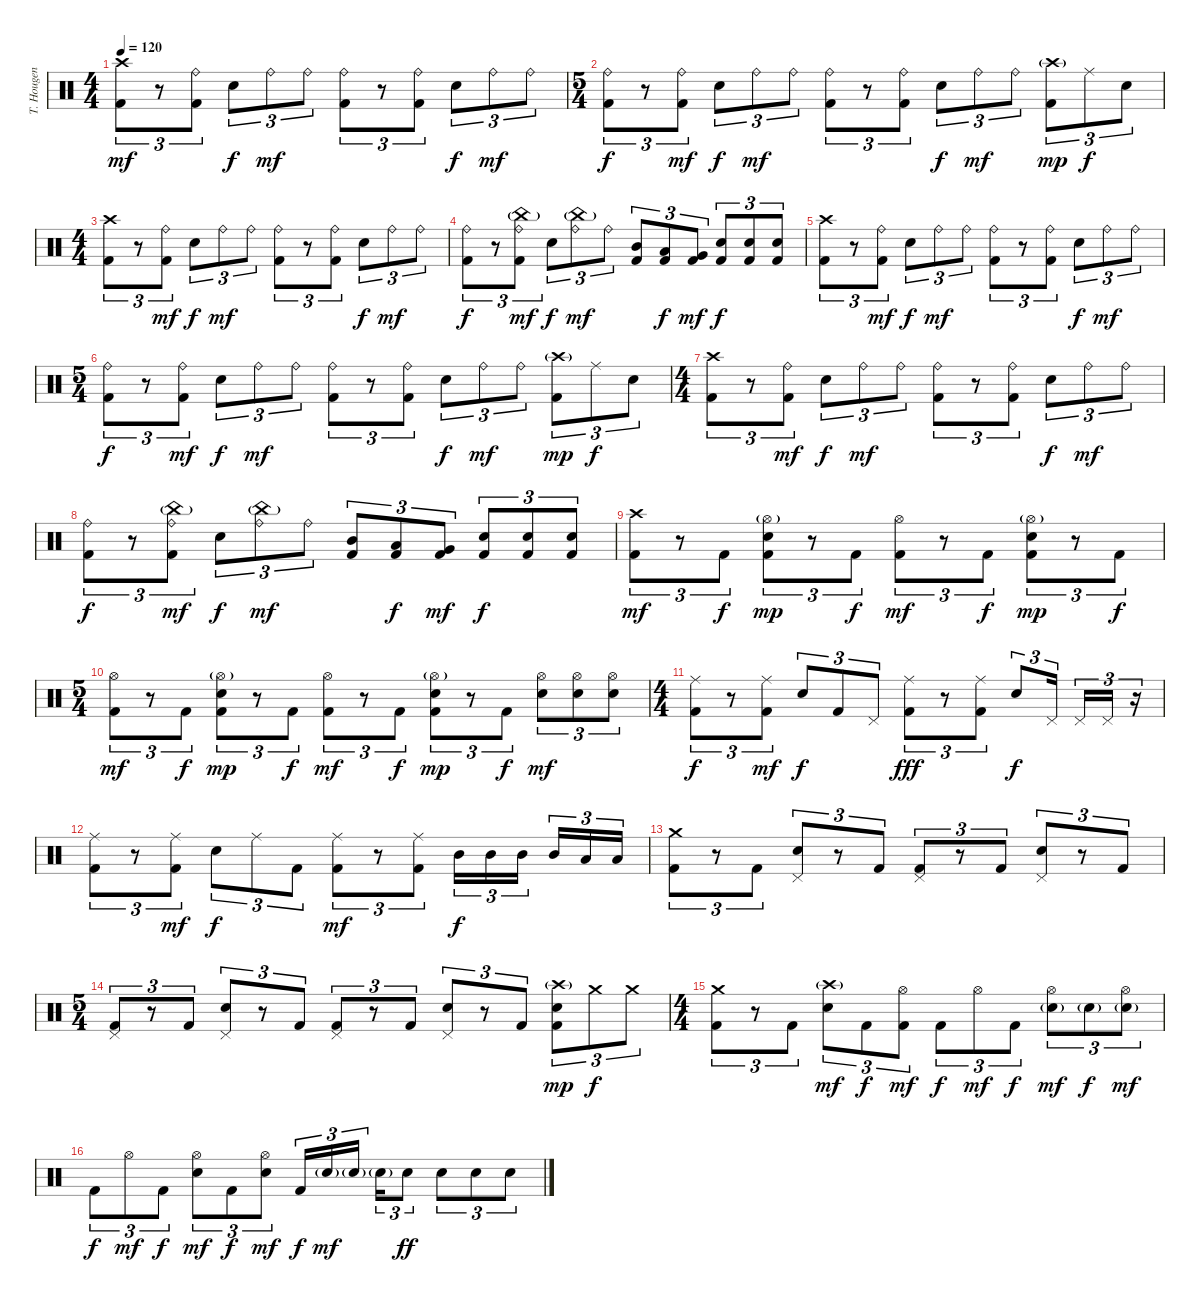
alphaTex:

\track ("T. Hougen - Drums" "T. Hougen ") {instrument percussion}
\staff {score}
\articulation defaults
\ts (4 4)
\tempo 120
\clef neutral
\ks c
("Crash high (hit)" "Kick (hit) 2").8{tu (3 2) dy mf volume 11} r.8{tu (3 2)} ("Ride (bell)" "Kick (hit) 2").8{tu (3 2)} "Electric Snare (hit)".8{tu (3 2) dy f} "Ride (bell)".8{tu (3 2) dy mf} "Ride (bell)".8{tu (3 2)} ("Ride (bell)" "Kick (hit) 2").8{tu (3 2)} r.8{tu (3 2)} ("Ride (bell)" "Kick (hit) 2").8{tu (3 2)} "Electric Snare (hit)".8{tu (3 2) dy f} "Ride (bell)".8{tu (3 2) dy mf} "Ride (bell)".8{tu (3 2)} |
\ts (5 4)
("Ride (bell)" "Kick (hit) 2").8{tu (3 2) dy f} r.8{tu (3 2)} ("Ride (bell)" "Kick (hit) 2").8{tu (3 2) dy mf} "Electric Snare (hit)".8{tu (3 2) dy f} "Ride (bell)".8{tu (3 2) dy mf} "Ride (bell)".8{tu (3 2)} ("Ride (bell)" "Kick (hit) 2").8{tu (3 2)} r.8{tu (3 2)} ("Ride (bell)" "Kick (hit) 2").8{tu (3 2)} "Electric Snare (hit)".8{tu (3 2) dy f} "Ride (bell)".8{tu (3 2) dy mf} "Ride (bell)".8{tu (3 2)} ("Crash high (hit)"{g} "Kick (hit) 2").8{tu (3 2) dy mp} "Ride (middle)".8{tu (3 2) dy f} "Electric Snare (hit)".8{tu (3 2)} |
\ts (4 4)
("Crash high (hit)" "Kick (hit) 2").8{tu (3 2)} r.8{tu (3 2)} ("Ride (bell)" "Kick (hit) 2").8{tu (3 2) dy mf} "Electric Snare (hit)".8{tu (3 2) dy f} "Ride (bell)".8{tu (3 2) dy mf} "Ride (bell)".8{tu (3 2)} ("Ride (bell)" "Kick (hit) 2").8{tu (3 2)} r.8{tu (3 2)} ("Ride (bell)" "Kick (hit) 2").8{tu (3 2)} "Electric Snare (hit)".8{tu (3 2) dy f} "Ride (bell)".8{tu (3 2) dy mf} "Ride (bell)".8{tu (3 2)} |
("Ride (bell)" "Kick (hit) 2").8{tu (3 2) dy f} r.8{tu (3 2)} ("China (hit)"{g} "Ride (bell)" "Kick (hit) 2").8{tu (3 2) dy mf} "Electric Snare (hit)".8{tu (3 2) dy f} ("China (hit)"{g} "Ride (bell)").8{tu (3 2) dy mf} "Ride (bell)".8{tu (3 2)} ("Mid Tom (hit)" "Kick (hit) 2").8{tu (3 2)} ("Low Tom (hit)" "Kick (hit) 2").8{tu (3 2) dy f} ("Very Low Tom (hit)" "Kick (hit) 2").8{tu (3 2) dy mf} ("Electric Snare (hit)" "Kick (hit) 2").8{tu (3 2) dy f} ("Electric Snare (hit)" "Kick (hit) 2").8{tu (3 2)} ("Electric Snare (hit)" "Kick (hit) 2").8{tu (3 2)} |
("Crash high (hit)" "Kick (hit) 2").8{tu (3 2)} r.8{tu (3 2)} ("Ride (bell)" "Kick (hit) 2").8{tu (3 2) dy mf} "Electric Snare (hit)".8{tu (3 2) dy f} "Ride (bell)".8{tu (3 2) dy mf} "Ride (bell)".8{tu (3 2)} ("Ride (bell)" "Kick (hit) 2").8{tu (3 2)} r.8{tu (3 2)} ("Ride (bell)" "Kick (hit) 2").8{tu (3 2)} "Electric Snare (hit)".8{tu (3 2) dy f} "Ride (bell)".8{tu (3 2) dy mf} "Ride (bell)".8{tu (3 2)} |
\ts (5 4)
("Ride (bell)" "Kick (hit) 2").8{tu (3 2) dy f} r.8{tu (3 2)} ("Ride (bell)" "Kick (hit) 2").8{tu (3 2) dy mf} "Electric Snare (hit)".8{tu (3 2) dy f} "Ride (bell)".8{tu (3 2) dy mf} "Ride (bell)".8{tu (3 2)} ("Ride (bell)" "Kick (hit) 2").8{tu (3 2)} r.8{tu (3 2)} ("Ride (bell)" "Kick (hit) 2").8{tu (3 2)} "Electric Snare (hit)".8{tu (3 2) dy f} "Ride (bell)".8{tu (3 2) dy mf} "Ride (bell)".8{tu (3 2)} ("Crash high (hit)"{g} "Kick (hit) 2").8{tu (3 2) dy mp} "Ride (middle)".8{tu (3 2) dy f} "Electric Snare (hit)".8{tu (3 2)} |
\ts (4 4)
("Crash high (hit)" "Kick (hit) 2").8{tu (3 2)} r.8{tu (3 2)} ("Ride (bell)" "Kick (hit) 2").8{tu (3 2) dy mf} "Electric Snare (hit)".8{tu (3 2) dy f} "Ride (bell)".8{tu (3 2) dy mf} "Ride (bell)".8{tu (3 2)} ("Ride (bell)" "Kick (hit) 2").8{tu (3 2)} r.8{tu (3 2)} ("Ride (bell)" "Kick (hit) 2").8{tu (3 2)} "Electric Snare (hit)".8{tu (3 2) dy f} "Ride (bell)".8{tu (3 2) dy mf} "Ride (bell)".8{tu (3 2)} |
("Ride (bell)" "Kick (hit) 2").8{tu (3 2) dy f} r.8{tu (3 2)} ("China (hit)"{g} "Ride (bell)" "Kick (hit) 2").8{tu (3 2) dy mf} "Electric Snare (hit)".8{tu (3 2) dy f} ("China (hit)"{g} "Ride (bell)").8{tu (3 2) dy mf} "Ride (bell)".8{tu (3 2)} ("Mid Tom (hit)" "Kick (hit) 2").8{tu (3 2)} ("Low Tom (hit)" "Kick (hit) 2").8{tu (3 2) dy f} ("Very Low Tom (hit)" "Kick (hit) 2").8{tu (3 2) dy mf} ("Electric Snare (hit)" "Kick (hit) 2").8{tu (3 2) dy f} ("Electric Snare (hit)" "Kick (hit) 2").8{tu (3 2)} ("Electric Snare (hit)" "Kick (hit) 2").8{tu (3 2)} |
("Crash high (hit)" "Kick (hit) 2").8{tu (3 2) dy mf} r.8{tu (3 2)} "Kick (hit) 2".8{tu (3 2) dy f} ("Hi-Hat (open)"{g} "Electric Snare (hit)" "Kick (hit) 2").8{tu (3 2) dy mp} r.8{tu (3 2)} "Kick (hit) 2".8{tu (3 2) dy f} ("Hi-Hat (open)" "Kick (hit) 2").8{tu (3 2) dy mf} r.8{tu (3 2)} "Kick (hit) 2".8{tu (3 2) dy f} ("Hi-Hat (open)"{g} "Electric Snare (hit)" "Kick (hit) 2").8{tu (3 2) dy mp} r.8{tu (3 2)} "Kick (hit) 2".8{tu (3 2) dy f} |
\ts (5 4)
("Hi-Hat (open)" "Kick (hit) 2").8{tu (3 2) dy mf} r.8{tu (3 2)} "Kick (hit) 2".8{tu (3 2) dy f} ("Hi-Hat (open)"{g} "Electric Snare (hit)" "Kick (hit) 2").8{tu (3 2) dy mp} r.8{tu (3 2)} "Kick (hit) 2".8{tu (3 2) dy f} ("Hi-Hat (open)" "Kick (hit) 2").8{tu (3 2) dy mf} r.8{tu (3 2)} "Kick (hit) 2".8{tu (3 2) dy f} ("Hi-Hat (open)"{g} "Electric Snare (hit)" "Kick (hit) 2").8{tu (3 2) dy mp} r.8{tu (3 2)} "Kick (hit) 2".8{tu (3 2) dy f} ("Hi-Hat (open)" "Electric Snare (hit)").8{tu (3 2) dy mf} ("Hi-Hat (open)" "Electric Snare (hit)").8{tu (3 2)} ("Hi-Hat (open)" "Electric Snare (hit)").8{tu (3 2)} |
\ts (4 4)
("Ride (middle)" "Kick (hit) 2").8{tu (3 2) dy f} r.8{tu (3 2)} ("Ride (middle)" "Kick (hit) 2").8{tu (3 2) dy mf} "Electric Snare (hit)".8{tu (3 2) dy f} "Kick (hit) 2".8{tu (3 2)} "Pedal Hi-Hat (hit)".8{tu (3 2)} ("Ride (middle)" "Kick (hit) 2").8{tu (3 2) dy fff} r.8{tu (3 2)} ("Ride (middle)" "Kick (hit) 2").8{tu (3 2)} "Electric Snare (hit)".8{tu (3 2) dy f} "Pedal Hi-Hat (hit)".16{tu (3 2)} "Pedal Hi-Hat (hit)".16{tu (3 2)} "Pedal Hi-Hat (hit)".16{tu (3 2)} r.16{tu (3 2)} |
("Ride (middle)" "Kick (hit) 2").8{tu (3 2)} r.8{tu (3 2)} ("Ride (middle)" "Kick (hit) 2").8{tu (3 2) dy mf} "Electric Snare (hit)".8{tu (3 2) dy f} "Ride (middle)".8{tu (3 2)} "Kick (hit) 2".8{tu (3 2)} ("Ride (middle)" "Kick (hit) 2").8{tu (3 2) dy mf} r.8{tu (3 2)} ("Ride (middle)" "Kick (hit) 2").8{tu (3 2)} "Mid Tom (hit)".16{tu (3 2) dy f} "Mid Tom (hit)".16{tu (3 2)} "Mid Tom (hit)".16{tu (3 2)} "Mid Tom (hit)".16{tu (3 2)} "Low Tom (hit)".16{tu (3 2)} "Low Tom (hit)".16{tu (3 2)} |
("Crash medium (hit)" "Kick (hit) 2").8{tu (3 2)} r.8{tu (3 2)} "Kick (hit) 2".8{tu (3 2)} ("Pedal Hi-Hat (hit)" "Electric Snare (hit)").8{tu (3 2)} r.8{tu (3 2)} "Kick (hit) 2".8{tu (3 2)} ("Pedal Hi-Hat (hit)" "Kick (hit) 2").8{tu (3 2)} r.8{tu (3 2)} "Kick (hit) 2".8{tu (3 2)} ("Pedal Hi-Hat (hit)" "Electric Snare (hit)").8{tu (3 2)} r.8{tu (3 2)} "Kick (hit) 2".8{tu (3 2)} |
\ts (5 4)
("Pedal Hi-Hat (hit)" "Kick (hit) 2").8{tu (3 2)} r.8{tu (3 2)} "Kick (hit) 2".8{tu (3 2)} ("Pedal Hi-Hat (hit)" "Electric Snare (hit)").8{tu (3 2)} r.8{tu (3 2)} "Kick (hit) 2".8{tu (3 2)} ("Pedal Hi-Hat (hit)" "Kick (hit) 2").8{tu (3 2)} r.8{tu (3 2)} "Kick (hit) 2".8{tu (3 2)} ("Pedal Hi-Hat (hit)" "Electric Snare (hit)").8{tu (3 2)} r.8{tu (3 2)} "Kick (hit) 2".8{tu (3 2)} ("Crash high (hit)"{g} "Electric Snare (hit)" "Kick (hit) 2").8{tu (3 2) dy mp} "Crash medium (hit)".8{tu (3 2) dy f} "Crash medium (hit)".8{tu (3 2)} |
\ts (4 4)
("Crash medium (hit)" "Kick (hit) 2").8{tu (3 2)} r.8{tu (3 2)} "Kick (hit) 2".8{tu (3 2)} ("Crash high (hit)"{g} "Electric Snare (hit)").8{tu (3 2) dy mf} "Kick (hit) 2".8{tu (3 2) dy f} ("Hi-Hat (open)" "Kick (hit) 2").8{tu (3 2) dy mf} "Kick (hit) 2".8{tu (3 2) dy f} "Hi-Hat (open)".8{tu (3 2) dy mf} "Kick (hit) 2".8{tu (3 2) dy f} ("Hi-Hat (open)" "Electric Snare (hit)"{g}).8{tu (3 2) dy mf} "Electric Snare (hit)"{g}.8{tu (3 2) dy f} ("Hi-Hat (open)" "Electric Snare (hit)"{g}).8{tu (3 2) dy mf} |
"Kick (hit) 2".8{tu (3 2) dy f} "Hi-Hat (open)".8{tu (3 2) dy mf} "Kick (hit) 2".8{tu (3 2) dy f} ("Hi-Hat (open)" "Electric Snare (hit)").8{tu (3 2) dy mf} "Kick (hit) 2".8{tu (3 2) dy f} ("Hi-Hat (open)" "Electric Snare (hit)").8{tu (3 2) dy mf} "Kick (hit) 2".16{tu (3 2) dy f} "Electric Snare (hit)"{g}.16{tu (3 2) dy mf} "Electric Snare (hit)"{g}.16{tu (3 2)} "Electric Snare (hit)"{g}.16{tu (3 2)} "Electric Snare (hit)".8{tu (3 2) dy ff} "Electric Snare (hit)".8{tu (3 2)} "Electric Snare (hit)".8{tu (3 2)} "Electric Snare (hit)".8{tu (3 2)}
